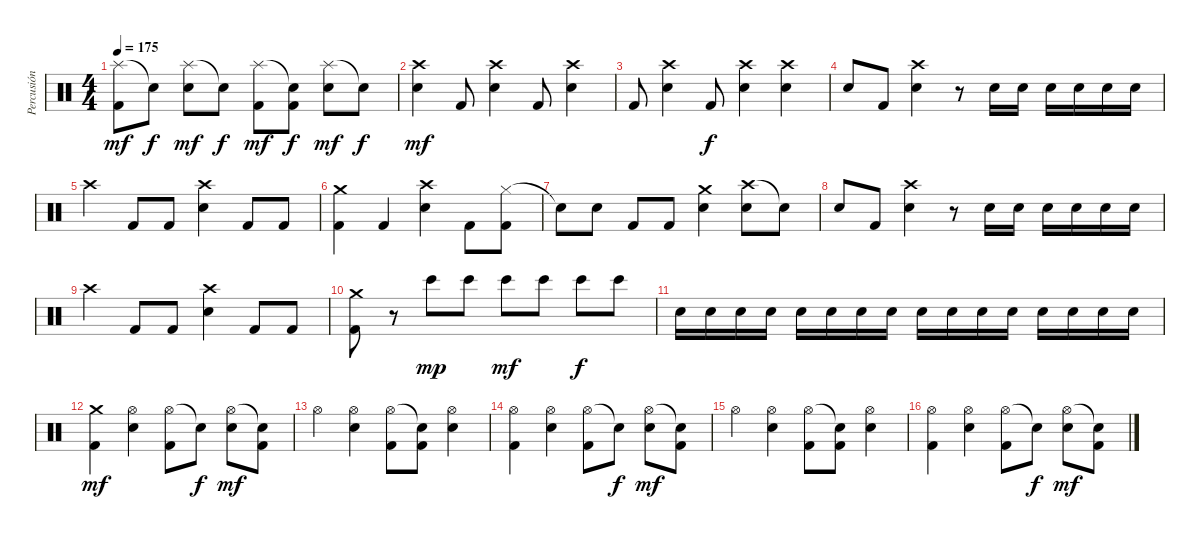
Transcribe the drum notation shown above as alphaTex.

\track ("Percusión" "Percusión") {instrument percussion}
\staff {score}
\articulation defaults
\ts (4 4)
\tempo 175
\clef neutral
\ks c
("Splash (hit)" "Kick (hit) 2").8{dy mf} "Snare (hit)"{t}.8{dy f} ("Splash (hit)" "Snare (hit) 2").8{dy mf} "Snare (hit)"{t}.8{dy f} ("Splash (hit)" "Kick (hit) 2").8{dy mf} ("Snare (hit)"{t} "Kick (hit) 2").8{dy f} ("Splash (hit)" "Snare (hit) 2").8{dy mf} "Snare (hit)"{t}.8{dy f} |
("Crash high (hit)" "Snare (hit) 2").4{dy mf} "Kick (hit) 2".8 ("Crash high (hit)" "Snare (hit) 2").4 "Kick (hit) 2".8 ("Crash high (hit)" "Snare (hit) 2").4 |
"Kick (hit) 2".8 ("Crash high (hit)" "Snare (hit) 2").4 "Kick (hit) 2".8{dy f} ("Crash high (hit)" "Snare (hit) 2").4 ("Crash high (hit)" "Snare (hit) 2").4 |
"Snare (hit) 2".8 "Kick (hit) 2".8 ("Crash high (hit)" "Snare (hit) 2").4 r.8 "Snare (hit) 2".16 "Snare (hit) 2".16 "Snare (hit) 2".16 "Snare (hit) 2".16 "Snare (hit) 2".16 "Snare (hit) 2".16 |
"Crash high (hit)".4 "Kick (hit) 2".8 "Kick (hit) 2".8 ("Crash high (hit)" "Snare (hit) 2").4 "Kick (hit) 2".8 "Kick (hit) 2".8 |
("Crash medium (hit)" "Kick (hit) 2").4 "Kick (hit) 2".4 ("Crash high (hit)" "Snare (hit) 2").4 "Kick (hit) 2".8 ("Hi-Hat (closed)" "Kick (hit) 2").8 |
"Snare (hit)"{t}.8 "Snare (hit) 2".8 "Kick (hit) 2".8 "Kick (hit) 2".8 ("Crash medium (hit)" "Snare (hit) 2").4 ("Crash high (hit)" "Snare (hit) 2").8 "Snare (hit)"{t}.8 |
"Snare (hit) 2".8 "Kick (hit) 2".8 ("Crash high (hit)" "Snare (hit) 2").4 r.8 "Snare (hit) 2".16 "Snare (hit) 2".16 "Snare (hit) 2".16 "Snare (hit) 2".16 "Snare (hit) 2".16 "Snare (hit) 2".16 |
"Crash high (hit)".4 "Kick (hit) 2".8 "Kick (hit) 2".8 ("Crash high (hit)" "Snare (hit) 2").4 "Kick (hit) 2".8 "Kick (hit) 2".8 |
("Crash medium (hit)" "Kick (hit) 2").8 r.8 "Bongo High (hit)".8{dy mp} "Bongo High (hit)".8 "Bongo High (hit)".8{dy mf} "Bongo High (hit)".8 "Bongo High (hit)".8{dy f} "Bongo High (hit)".8 |
"Snare (hit) 2".16 "Snare (hit) 2".16 "Snare (hit) 2".16 "Snare (hit) 2".16 "Snare (hit) 2".16 "Snare (hit) 2".16 "Snare (hit) 2".16 "Snare (hit) 2".16 "Snare (hit) 2".16 "Snare (hit) 2".16 "Snare (hit) 2".16 "Snare (hit) 2".16 "Snare (hit) 2".16 "Snare (hit) 2".16 "Snare (hit) 2".16 "Snare (hit) 2".16 |
("Crash medium (hit)" "Kick (hit) 2").4{dy mf} ("Hi-Hat (open)" "Snare (hit) 2").4 ("Hi-Hat (open)" "Kick (hit) 2").8 "Snare (hit)"{t}.8{dy f} ("Hi-Hat (open)" "Snare (hit) 2").8{dy mf} ("Snare (hit)"{t} "Kick (hit) 2").8 |
"Hi-Hat (open)".4 ("Hi-Hat (open)" "Snare (hit) 2").4 ("Hi-Hat (open)" "Kick (hit) 2").8 ("Snare (hit)"{t} "Kick (hit) 2").8 ("Hi-Hat (open)" "Snare (hit) 2").4 |
("Hi-Hat (open)" "Kick (hit) 2").4 ("Hi-Hat (open)" "Snare (hit) 2").4 ("Hi-Hat (open)" "Kick (hit) 2").8 "Snare (hit)"{t}.8{dy f} ("Hi-Hat (open)" "Snare (hit) 2").8{dy mf} ("Snare (hit)"{t} "Kick (hit) 2").8 |
"Hi-Hat (open)".4 ("Hi-Hat (open)" "Snare (hit) 2").4 ("Hi-Hat (open)" "Kick (hit) 2").8 ("Snare (hit)"{t} "Kick (hit) 2").8 ("Hi-Hat (open)" "Snare (hit) 2").4 |
("Hi-Hat (open)" "Kick (hit) 2").4 ("Hi-Hat (open)" "Snare (hit) 2").4 ("Hi-Hat (open)" "Kick (hit) 2").8 "Snare (hit)"{t}.8{dy f} ("Hi-Hat (open)" "Snare (hit) 2").8{dy mf} ("Snare (hit)"{t} "Kick (hit) 2").8
